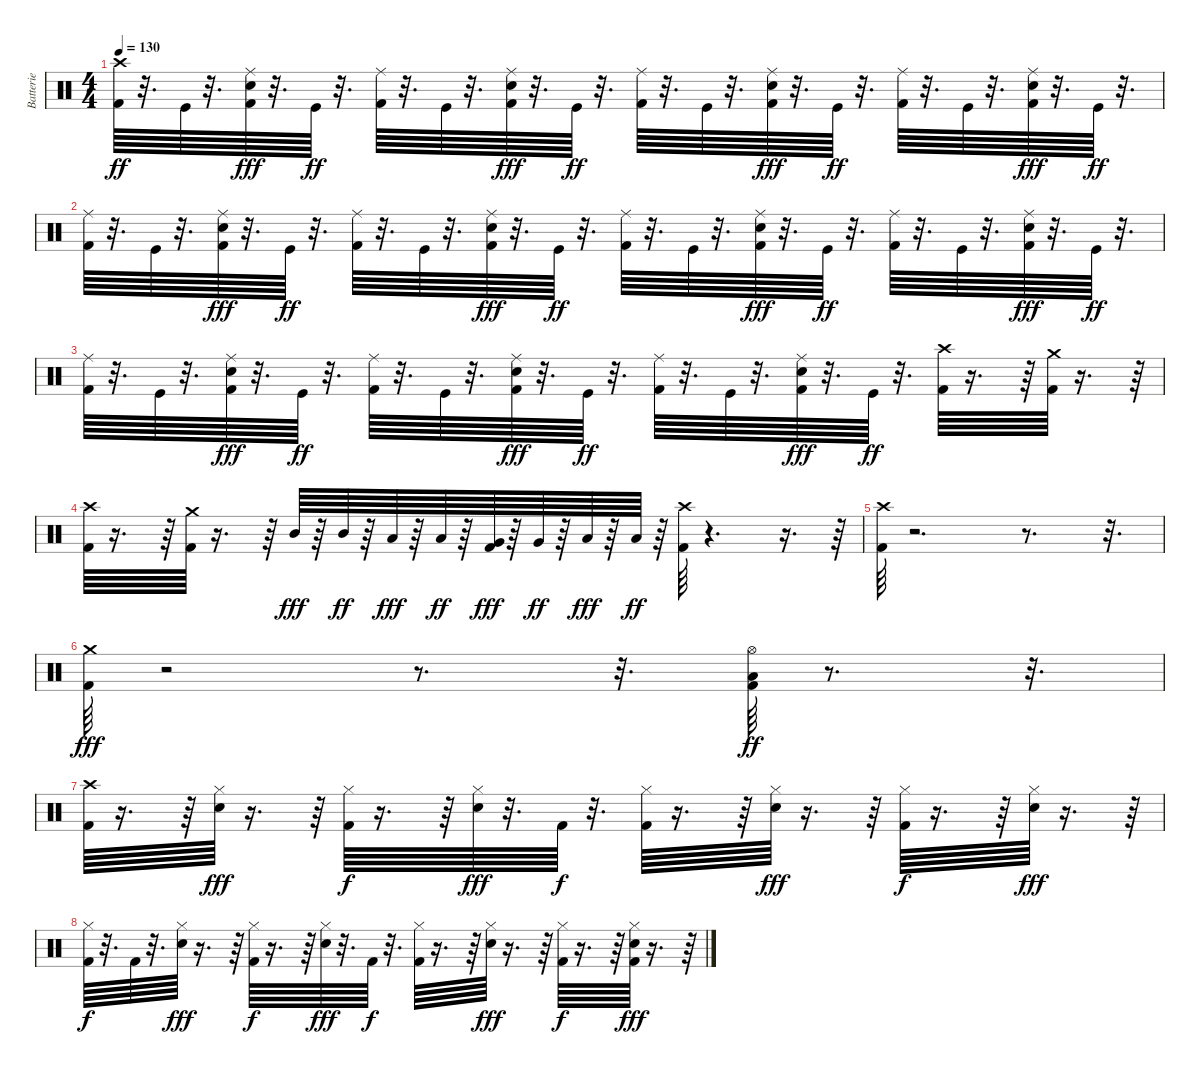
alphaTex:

\track ("Batterie" "Batterie") {instrument percussion}
\staff {score}
\articulation defaults
\ts (4 4)
\tempo 130
\clef neutral
\ks c
("Kick (hit) 2" "Crash high (hit)").64{dy ff} r.32{d} "Kick (hit)".64 r.32{d} ("Kick (hit) 2" "Snare (hit) 2" "Ride (middle)").64{dy fff} r.32{d} "Kick (hit)".64{dy ff} r.32{d} ("Kick (hit) 2" "Ride (middle)").64 r.32{d} "Kick (hit)".64 r.32{d} ("Kick (hit) 2" "Snare (hit) 2" "Ride (middle)").64{dy fff} r.32{d} "Kick (hit)".64{dy ff} r.32{d} ("Kick (hit) 2" "Ride (middle)").64 r.32{d} "Kick (hit)".64 r.32{d} ("Kick (hit) 2" "Snare (hit) 2" "Ride (middle)").64{dy fff} r.32{d} "Kick (hit)".64{dy ff} r.32{d} ("Kick (hit) 2" "Ride (middle)").64 r.32{d} "Kick (hit)".64 r.32{d} ("Kick (hit) 2" "Snare (hit) 2" "Ride (middle)").64{dy fff} r.32{d} "Kick (hit)".64{dy ff} r.32{d} |
("Kick (hit) 2" "Ride (middle)").64 r.32{d} "Kick (hit)".64 r.32{d} ("Kick (hit) 2" "Snare (hit) 2" "Ride (middle)").64{dy fff} r.32{d} "Kick (hit)".64{dy ff} r.32{d} ("Kick (hit) 2" "Ride (middle)").64 r.32{d} "Kick (hit)".64 r.32{d} ("Kick (hit) 2" "Snare (hit) 2" "Ride (middle)").64{dy fff} r.32{d} "Kick (hit)".64{dy ff} r.32{d} ("Kick (hit) 2" "Ride (middle)").64 r.32{d} "Kick (hit)".64 r.32{d} ("Kick (hit) 2" "Snare (hit) 2" "Ride (middle)").64{dy fff} r.32{d} "Kick (hit)".64{dy ff} r.32{d} ("Kick (hit) 2" "Ride (middle)").64 r.32{d} "Kick (hit)".64 r.32{d} ("Kick (hit) 2" "Snare (hit) 2" "Ride (middle)").64{dy fff} r.32{d} "Kick (hit)".64{dy ff} r.32{d} |
("Kick (hit) 2" "Ride (middle)").64 r.32{d} "Kick (hit)".64 r.32{d} ("Kick (hit) 2" "Snare (hit) 2" "Ride (middle)").64{dy fff} r.32{d} "Kick (hit)".64{dy ff} r.32{d} ("Kick (hit) 2" "Ride (middle)").64 r.32{d} "Kick (hit)".64 r.32{d} ("Kick (hit) 2" "Snare (hit) 2" "Ride (middle)").64{dy fff} r.32{d} "Kick (hit)".64{dy ff} r.32{d} ("Kick (hit) 2" "Ride (middle)").64 r.32{d} "Kick (hit)".64 r.32{d} ("Kick (hit) 2" "Snare (hit) 2" "Ride (middle)").64{dy fff} r.32{d} "Kick (hit)".64{dy ff} r.32{d} ("Kick (hit) 2" "Crash high (hit)").64 r.16{d} r.64 ("Kick (hit) 2" "Crash medium (hit)").64 r.16{d} r.64 |
("Kick (hit) 2" "Crash high (hit)").64 r.16{d} r.64 ("Kick (hit) 2" "Crash medium (hit)").64 r.16{d} r.64 "Mid Tom (hit)".64{dy fff} r.64 "Mid Tom (hit)".64{dy ff} r.64 "Low Tom (hit)".64{dy fff} r.64 "Low Tom (hit)".64{dy ff} r.64 ("Kick (hit) 2" "Very Low Tom (hit)").64{dy fff} r.64 "Very Low Tom (hit)".64{dy ff} r.64 "Low Floor Tom (hit)".64{dy fff} r.64 "Low Floor Tom (hit)".64{dy ff} r.64 ("Kick (hit) 2" "Crash high (hit)").64 r.4{d} r.16{d} r.64 |
("Kick (hit) 2" "Crash high (hit)").64 r.2{d} r.8{d} r.32{d} |
("Kick (hit) 2" "Crash medium (hit)").64{dy fff} r.2 r.8{d} r.32{d} ("Kick (hit) 2" "Hi-Hat (open)" "Low Tom (hit)").64{dy ff} r.8{d} r.32{d} |
("Kick (hit) 2" "Crash high (hit)").64 r.16{d} r.64 ("Hi-Hat (closed)" "Snare (hit) 2").64{dy fff} r.16{d} r.64 ("Kick (hit) 2" "Hi-Hat (closed)").64{dy f} r.16{d} r.64 ("Hi-Hat (closed)" "Snare (hit) 2").64{dy fff} r.32{d} "Kick (hit) 2".64{dy f} r.32{d} ("Kick (hit) 2" "Hi-Hat (closed)").64 r.16{d} r.64 ("Hi-Hat (closed)" "Snare (hit) 2").64{dy fff} r.16{d} r.64 ("Kick (hit) 2" "Hi-Hat (closed)").64{dy f} r.16{d} r.64 ("Hi-Hat (closed)" "Snare (hit) 2").64{dy fff} r.16{d} r.64 |
("Kick (hit) 2" "Hi-Hat (closed)").64{dy f} r.32{d} "Kick (hit) 2".64 r.32{d} ("Snare (hit) 2" "Hi-Hat (closed)").64{dy fff} r.16{d} r.64 ("Kick (hit) 2" "Hi-Hat (closed)").64{dy f} r.16{d} r.64 ("Snare (hit) 2" "Hi-Hat (closed)").64{dy fff} r.32{d} "Kick (hit) 2".64{dy f} r.32{d} ("Kick (hit) 2" "Hi-Hat (closed)").64 r.16{d} r.64 ("Snare (hit) 2" "Hi-Hat (closed)").64{dy fff} r.16{d} r.64 ("Kick (hit) 2" "Hi-Hat (closed)").64{dy f} r.16{d} r.64 ("Kick (hit) 2" "Snare (hit) 2" "Hi-Hat (closed)").64{dy fff} r.16{d} r.64
